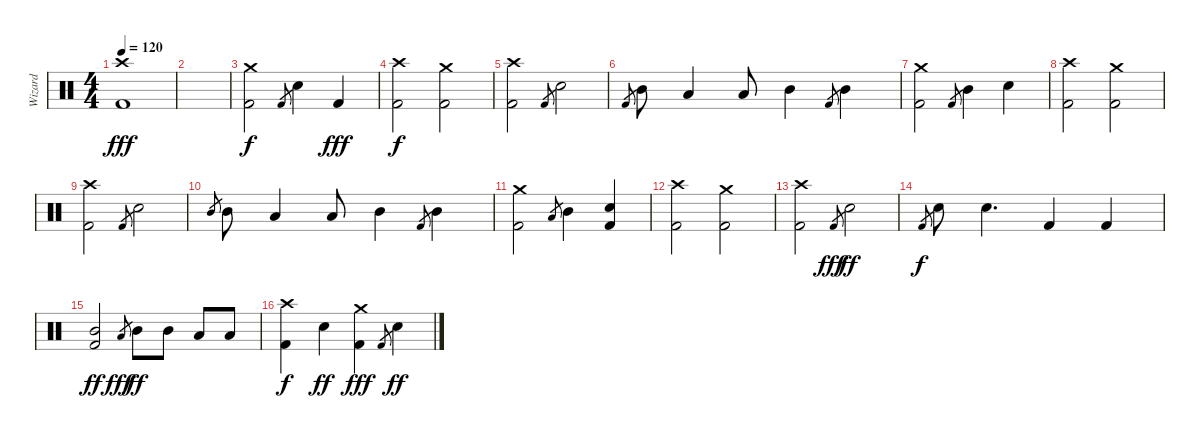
\track ("Wizard" "Wizard") {instrument percussion}
\staff {score}
\articulation defaults
\ts (4 4)
\tempo 120
\clef neutral
\ks c
("Crash high (hit)" "Kick (hit) 2").1{dy fff} |
|
("Crash medium (hit)" "Kick (hit) 2").2{dy f} "Kick (hit) 2".8{gr} "Snare (hit) 2".4 "Kick (hit) 2".4{dy fff} |
("Crash high (hit)" "Kick (hit) 2").2{dy f} ("Crash medium (hit)" "Kick (hit) 2").2 |
("Crash high (hit)" "Kick (hit) 2").2 "Kick (hit) 2".8{gr} "Snare (hit) 2".2 |
"Kick (hit) 2".8{gr} "Mid Tom (hit)".8 "Low Tom (hit)".4 "Low Tom (hit)".8 "Mid Tom (hit)".4 "Kick (hit) 2".8{gr} "Mid Tom (hit)".4 |
("Crash medium (hit)" "Kick (hit) 2").2 "Kick (hit) 2".8{gr} "Mid Tom (hit)".4 "Snare (hit) 2".4 |
("Crash high (hit)" "Kick (hit) 2").2 ("Crash medium (hit)" "Kick (hit) 2").2 |
("Crash high (hit)" "Kick (hit) 2").2 "Kick (hit) 2".8{gr} "Snare (hit) 2".2 |
"Mid Tom (hit)".8{gr} "Mid Tom (hit)".8 "Low Tom (hit)".4 "Low Tom (hit)".8 "Mid Tom (hit)".4 "Kick (hit) 2".8{gr} "Mid Tom (hit)".4 |
("Crash medium (hit)" "Kick (hit) 2").2 "Low Tom (hit)".8{gr} "Mid Tom (hit)".4 ("Snare (hit) 2" "Kick (hit) 2").4 |
("Crash high (hit)" "Kick (hit) 2").2 ("Crash medium (hit)" "Kick (hit) 2").2 |
("Crash high (hit)" "Kick (hit) 2").2 "Kick (hit) 2".8{gr dy fff} "Snare (hit) 2".2{dy ff} |
"Kick (hit) 2".8{gr dy f} "Snare (hit) 2".8 "Snare (hit) 2".4{d} "Kick (hit) 2".4 "Kick (hit) 2".4 |
("Mid Tom (hit)" "Kick (hit) 2").2{dy ff} "Low Tom (hit)".8{gr dy fff} "Mid Tom (hit)".8{dy ff} "Mid Tom (hit)".8 "Low Tom (hit)".8 "Low Tom (hit)".8 |
("Crash high (hit)" "Kick (hit) 2").4{dy f} "Snare (hit) 2".4{dy ff} ("Crash medium (hit)" "Kick (hit) 2").4{dy fff} "Kick (hit) 2".8{gr} "Snare (hit) 2".4{dy ff}
